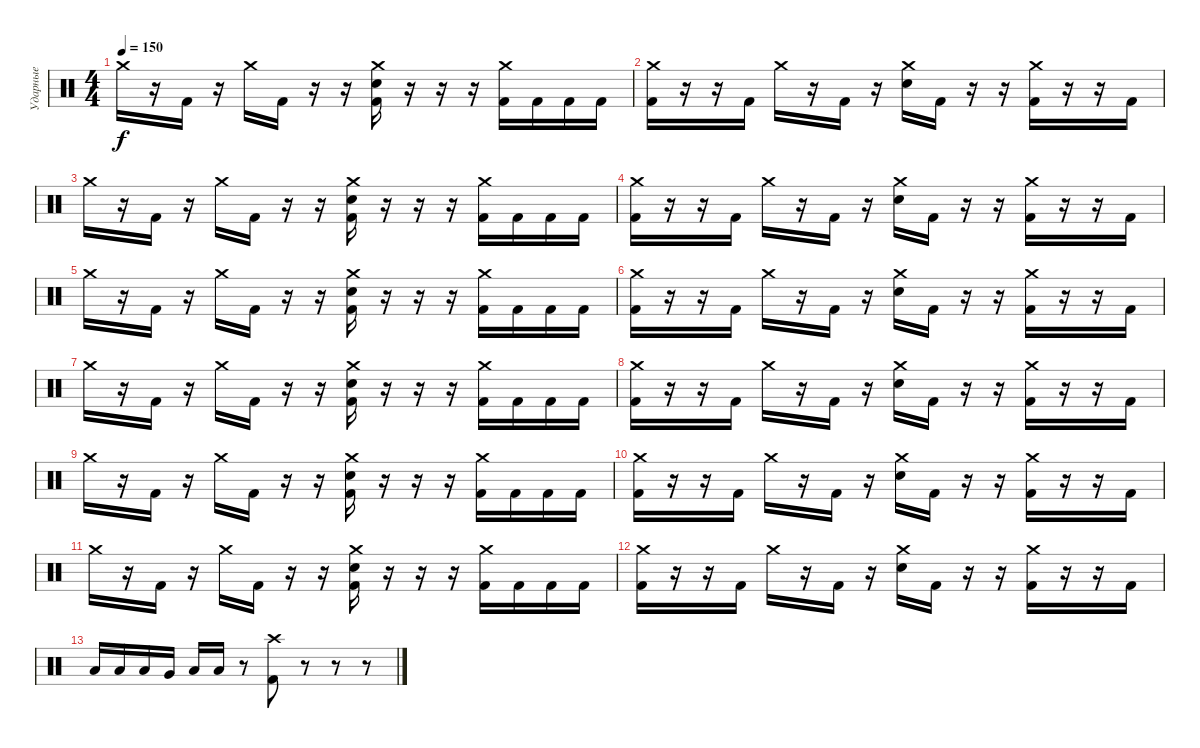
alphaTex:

\track ("Ударные" "Ударные") {instrument percussion}
\staff {score}
\articulation defaults
\ts (4 4)
\tempo 150
\clef neutral
\ks c "Crash medium (hit)".16{dy f}
r.16 "Kick (hit) 2".16 r.16 "Crash medium (hit)".16 "Kick (hit) 2".16 r.16 r.16 ("Crash medium (hit)" "Electric Snare (hit)" "Kick (hit) 2").16 r.16 r.16 r.16 ("Crash medium (hit)" "Kick (hit) 2").16 "Kick (hit) 2".16 "Kick (hit) 2".16 "Kick (hit) 2".16 |
("Crash medium (hit)" "Kick (hit) 2").16 r.16 r.16 "Kick (hit) 2".16 "Crash medium (hit)".16 r.16 "Kick (hit) 2".16 r.16 ("Crash medium (hit)" "Electric Snare (hit)").16 "Kick (hit) 2".16 r.16 r.16 ("Crash medium (hit)" "Kick (hit) 2").16 r.16 r.16 "Kick (hit) 2".16 |
"Crash medium (hit)".16 r.16 "Kick (hit) 2".16 r.16 "Crash medium (hit)".16 "Kick (hit) 2".16 r.16 r.16 ("Crash medium (hit)" "Electric Snare (hit)" "Kick (hit) 2").16 r.16 r.16 r.16 ("Crash medium (hit)" "Kick (hit) 2").16 "Kick (hit) 2".16 "Kick (hit) 2".16 "Kick (hit) 2".16 |
("Crash medium (hit)" "Kick (hit) 2").16 r.16 r.16 "Kick (hit) 2".16 "Crash medium (hit)".16 r.16 "Kick (hit) 2".16 r.16 ("Crash medium (hit)" "Electric Snare (hit)").16 "Kick (hit) 2".16 r.16 r.16 ("Crash medium (hit)" "Kick (hit) 2").16 r.16 r.16 "Kick (hit) 2".16 |
"Crash medium (hit)".16 r.16 "Kick (hit) 2".16 r.16 "Crash medium (hit)".16 "Kick (hit) 2".16 r.16 r.16 ("Crash medium (hit)" "Electric Snare (hit)" "Kick (hit) 2").16 r.16 r.16 r.16 ("Crash medium (hit)" "Kick (hit) 2").16 "Kick (hit) 2".16 "Kick (hit) 2".16 "Kick (hit) 2".16 |
("Crash medium (hit)" "Kick (hit) 2").16 r.16 r.16 "Kick (hit) 2".16 "Crash medium (hit)".16 r.16 "Kick (hit) 2".16 r.16 ("Crash medium (hit)" "Electric Snare (hit)").16 "Kick (hit) 2".16 r.16 r.16 ("Crash medium (hit)" "Kick (hit) 2").16 r.16 r.16 "Kick (hit) 2".16 |
"Crash medium (hit)".16 r.16 "Kick (hit) 2".16 r.16 "Crash medium (hit)".16 "Kick (hit) 2".16 r.16 r.16 ("Crash medium (hit)" "Electric Snare (hit)" "Kick (hit) 2").16 r.16 r.16 r.16 ("Crash medium (hit)" "Kick (hit) 2").16 "Kick (hit) 2".16 "Kick (hit) 2".16 "Kick (hit) 2".16 |
("Crash medium (hit)" "Kick (hit) 2").16 r.16 r.16 "Kick (hit) 2".16 "Crash medium (hit)".16 r.16 "Kick (hit) 2".16 r.16 ("Crash medium (hit)" "Electric Snare (hit)").16 "Kick (hit) 2".16 r.16 r.16 ("Crash medium (hit)" "Kick (hit) 2").16 r.16 r.16 "Kick (hit) 2".16 |
"Crash medium (hit)".16 r.16 "Kick (hit) 2".16 r.16 "Crash medium (hit)".16 "Kick (hit) 2".16 r.16 r.16 ("Crash medium (hit)" "Electric Snare (hit)" "Kick (hit) 2").16 r.16 r.16 r.16 ("Crash medium (hit)" "Kick (hit) 2").16 "Kick (hit) 2".16 "Kick (hit) 2".16 "Kick (hit) 2".16 |
("Crash medium (hit)" "Kick (hit) 2").16 r.16 r.16 "Kick (hit) 2".16 "Crash medium (hit)".16 r.16 "Kick (hit) 2".16 r.16 ("Crash medium (hit)" "Electric Snare (hit)").16 "Kick (hit) 2".16 r.16 r.16 ("Crash medium (hit)" "Kick (hit) 2").16 r.16 r.16 "Kick (hit) 2".16 |
"Crash medium (hit)".16 r.16 "Kick (hit) 2".16 r.16 "Crash medium (hit)".16 "Kick (hit) 2".16 r.16 r.16 ("Crash medium (hit)" "Electric Snare (hit)" "Kick (hit) 2").16 r.16 r.16 r.16 ("Crash medium (hit)" "Kick (hit) 2").16 "Kick (hit) 2".16 "Kick (hit) 2".16 "Kick (hit) 2".16 |
("Crash medium (hit)" "Kick (hit) 2").16 r.16 r.16 "Kick (hit) 2".16 "Crash medium (hit)".16 r.16 "Kick (hit) 2".16 r.16 ("Crash medium (hit)" "Electric Snare (hit)").16 "Kick (hit) 2".16 r.16 r.16 ("Crash medium (hit)" "Kick (hit) 2").16 r.16 r.16 "Kick (hit) 2".16 |
"Low Tom (hit)".16 "Low Tom (hit)".16 "Low Tom (hit)".16 "Very Low Tom (hit)".16 "Low Floor Tom (hit)".16 "Low Floor Tom (hit)".16 r.8 ("Crash high (hit)" "Kick (hit) 2").8 r.8 r.8 r.8
